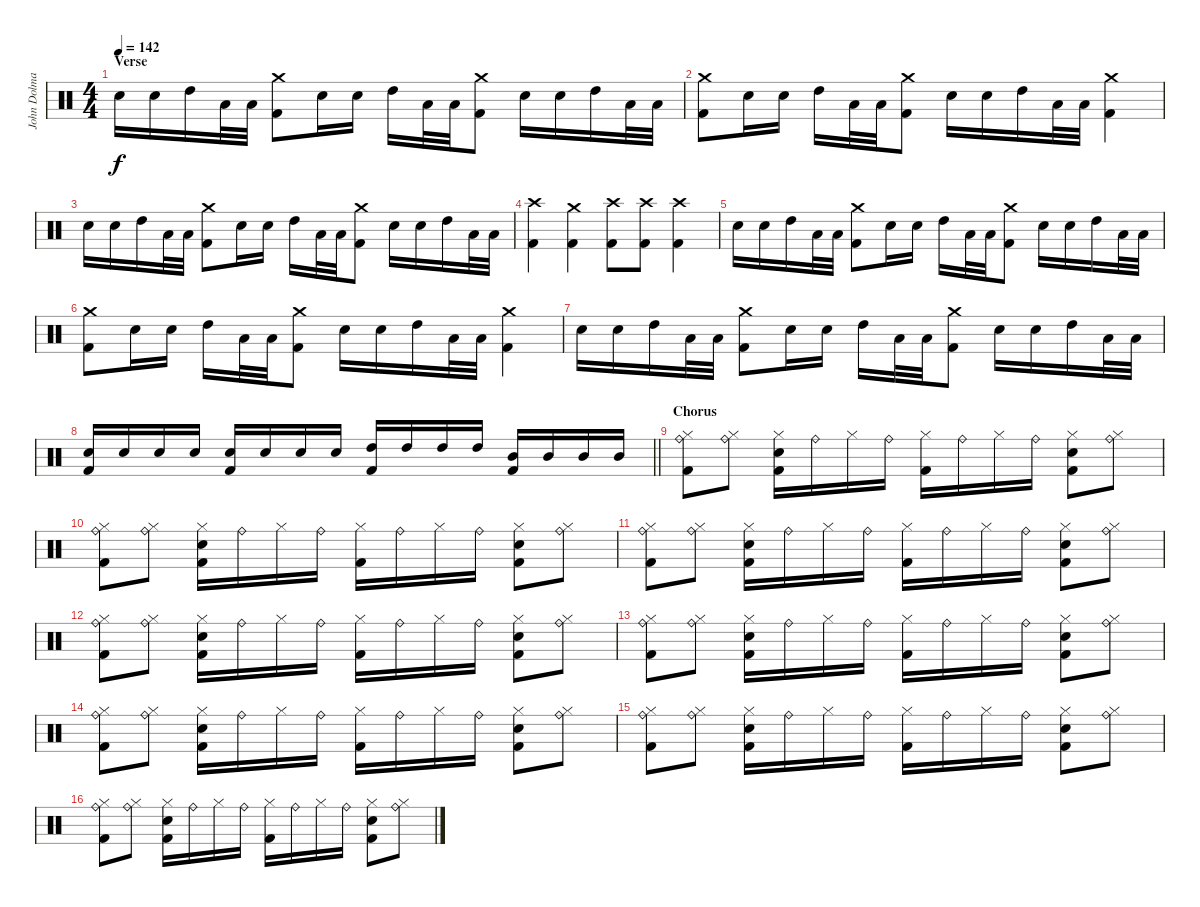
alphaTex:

\track ("John Dolmayan" "John Dolma") {instrument percussion}
\staff {score}
\articulation defaults
\ts (4 4)
\section ("" "Verse")
\tempo 142
\clef neutral
\ks c "Electric Snare (hit)".16{dy f} "Electric Snare (hit)".16 "High Tom (hit)".16 "Low Floor Tom (hit)".32 "Low Floor Tom (hit)".32
("Crash medium (hit)" "Kick (hit) 2").8 "Electric Snare (hit)".16 "Electric Snare (hit)".16 "High Tom (hit)".16 "Low Floor Tom (hit)".32 "Low Floor Tom (hit)".32 ("Crash medium (hit)" "Kick (hit) 2").8 "Electric Snare (hit)".16 "Electric Snare (hit)".16 "High Tom (hit)".16 "Low Floor Tom (hit)".32 "Low Floor Tom (hit)".32 |
("Crash medium (hit)" "Kick (hit) 2").8 "Electric Snare (hit)".16 "Electric Snare (hit)".16 "High Tom (hit)".16 "Low Floor Tom (hit)".32 "Low Floor Tom (hit)".32 ("Crash medium (hit)" "Kick (hit) 2").8 "Electric Snare (hit)".16 "Electric Snare (hit)".16 "High Tom (hit)".16 "Low Floor Tom (hit)".32 "Low Floor Tom (hit)".32 ("Crash medium (hit)" "Kick (hit) 2").4 |
"Electric Snare (hit)".16 "Electric Snare (hit)".16 "High Tom (hit)".16 "Low Floor Tom (hit)".32 "Low Floor Tom (hit)".32 ("Crash medium (hit)" "Kick (hit) 2").8 "Electric Snare (hit)".16 "Electric Snare (hit)".16 "High Tom (hit)".16 "Low Floor Tom (hit)".32 "Low Floor Tom (hit)".32 ("Crash medium (hit)" "Kick (hit) 2").8 "Electric Snare (hit)".16 "Electric Snare (hit)".16 "High Tom (hit)".16 "Low Floor Tom (hit)".32 "Low Floor Tom (hit)".32 |
("Crash high (hit)" "Kick (hit) 2").4 ("Crash medium (hit)" "Kick (hit) 2").4 ("Crash high (hit)" "Kick (hit) 2").8 ("Crash high (hit)" "Kick (hit) 2").8 ("Crash high (hit)" "Kick (hit) 2").4 |
"Electric Snare (hit)".16 "Electric Snare (hit)".16 "High Tom (hit)".16 "Low Floor Tom (hit)".32 "Low Floor Tom (hit)".32 ("Crash medium (hit)" "Kick (hit) 2").8 "Electric Snare (hit)".16 "Electric Snare (hit)".16 "High Tom (hit)".16 "Low Floor Tom (hit)".32 "Low Floor Tom (hit)".32 ("Crash medium (hit)" "Kick (hit) 2").8 "Electric Snare (hit)".16 "Electric Snare (hit)".16 "High Tom (hit)".16 "Low Floor Tom (hit)".32 "Low Floor Tom (hit)".32 |
("Crash medium (hit)" "Kick (hit) 2").8 "Electric Snare (hit)".16 "Electric Snare (hit)".16 "High Tom (hit)".16 "Low Floor Tom (hit)".32 "Low Floor Tom (hit)".32 ("Crash medium (hit)" "Kick (hit) 2").8 "Electric Snare (hit)".16 "Electric Snare (hit)".16 "High Tom (hit)".16 "Low Floor Tom (hit)".32 "Low Floor Tom (hit)".32 ("Crash medium (hit)" "Kick (hit) 2").4 |
"Electric Snare (hit)".16 "Electric Snare (hit)".16 "High Tom (hit)".16 "Low Floor Tom (hit)".32 "Low Floor Tom (hit)".32 ("Crash medium (hit)" "Kick (hit) 2").8 "Electric Snare (hit)".16 "Electric Snare (hit)".16 "High Tom (hit)".16 "Low Floor Tom (hit)".32 "Low Floor Tom (hit)".32 ("Crash medium (hit)" "Kick (hit) 2").8 "Electric Snare (hit)".16 "Electric Snare (hit)".16 "High Tom (hit)".16 "Low Floor Tom (hit)".32 "Low Floor Tom (hit)".32 |
\barLineRight lightlight
("Electric Snare (hit)" "Kick (hit) 2").16 "Electric Snare (hit)".16 "Electric Snare (hit)".16 "Electric Snare (hit)".16 ("Electric Snare (hit)" "Kick (hit) 2").16 "Electric Snare (hit)".16 "Electric Snare (hit)".16 "Electric Snare (hit)".16 ("High Tom (hit)" "Kick (hit) 2").16 "High Tom (hit)".16 "High Tom (hit)".16 "High Tom (hit)".16 ("Mid Tom (hit)" "Kick (hit) 2").16 "Mid Tom (hit)".16 "Mid Tom (hit)".16 "Mid Tom (hit)".16 |
\section ("" "Chorus")
("Ride (bell)" "Hi-Hat (closed)" "Kick (hit) 2").8 ("Ride (bell)" "Hi-Hat (closed)").8 ("Hi-Hat (closed)" "Electric Snare (hit)" "Kick (hit) 2").16 "Ride (bell)".16 "Hi-Hat (closed)".16 "Ride (bell)".16 ("Hi-Hat (closed)" "Kick (hit) 2").16 "Ride (bell)".16 "Hi-Hat (closed)".16 "Ride (bell)".16 ("Hi-Hat (closed)" "Electric Snare (hit)" "Kick (hit) 2").8 ("Ride (bell)" "Hi-Hat (closed)").8 |
("Ride (bell)" "Hi-Hat (closed)" "Kick (hit) 2").8 ("Ride (bell)" "Hi-Hat (closed)").8 ("Hi-Hat (closed)" "Electric Snare (hit)" "Kick (hit) 2").16 "Ride (bell)".16 "Hi-Hat (closed)".16 "Ride (bell)".16 ("Hi-Hat (closed)" "Kick (hit) 2").16 "Ride (bell)".16 "Hi-Hat (closed)".16 "Ride (bell)".16 ("Hi-Hat (closed)" "Electric Snare (hit)" "Kick (hit) 2").8 ("Ride (bell)" "Hi-Hat (closed)").8 |
("Ride (bell)" "Hi-Hat (closed)" "Kick (hit) 2").8 ("Ride (bell)" "Hi-Hat (closed)").8 ("Hi-Hat (closed)" "Electric Snare (hit)" "Kick (hit) 2").16 "Ride (bell)".16 "Hi-Hat (closed)".16 "Ride (bell)".16 ("Hi-Hat (closed)" "Kick (hit) 2").16 "Ride (bell)".16 "Hi-Hat (closed)".16 "Ride (bell)".16 ("Hi-Hat (closed)" "Electric Snare (hit)" "Kick (hit) 2").8 ("Ride (bell)" "Hi-Hat (closed)").8 |
("Ride (bell)" "Hi-Hat (closed)" "Kick (hit) 2").8 ("Ride (bell)" "Hi-Hat (closed)").8 ("Hi-Hat (closed)" "Electric Snare (hit)" "Kick (hit) 2").16 "Ride (bell)".16 "Hi-Hat (closed)".16 "Ride (bell)".16 ("Hi-Hat (closed)" "Kick (hit) 2").16 "Ride (bell)".16 "Hi-Hat (closed)".16 "Ride (bell)".16 ("Hi-Hat (closed)" "Electric Snare (hit)" "Kick (hit) 2").8 ("Ride (bell)" "Hi-Hat (closed)").8 |
("Ride (bell)" "Hi-Hat (closed)" "Kick (hit) 2").8 ("Ride (bell)" "Hi-Hat (closed)").8 ("Hi-Hat (closed)" "Electric Snare (hit)" "Kick (hit) 2").16 "Ride (bell)".16 "Hi-Hat (closed)".16 "Ride (bell)".16 ("Hi-Hat (closed)" "Kick (hit) 2").16 "Ride (bell)".16 "Hi-Hat (closed)".16 "Ride (bell)".16 ("Hi-Hat (closed)" "Electric Snare (hit)" "Kick (hit) 2").8 ("Ride (bell)" "Hi-Hat (closed)").8 |
("Ride (bell)" "Hi-Hat (closed)" "Kick (hit) 2").8 ("Ride (bell)" "Hi-Hat (closed)").8 ("Hi-Hat (closed)" "Electric Snare (hit)" "Kick (hit) 2").16 "Ride (bell)".16 "Hi-Hat (closed)".16 "Ride (bell)".16 ("Hi-Hat (closed)" "Kick (hit) 2").16 "Ride (bell)".16 "Hi-Hat (closed)".16 "Ride (bell)".16 ("Hi-Hat (closed)" "Electric Snare (hit)" "Kick (hit) 2").8 ("Ride (bell)" "Hi-Hat (closed)").8 |
("Ride (bell)" "Hi-Hat (closed)" "Kick (hit) 2").8 ("Ride (bell)" "Hi-Hat (closed)").8 ("Hi-Hat (closed)" "Electric Snare (hit)" "Kick (hit) 2").16 "Ride (bell)".16 "Hi-Hat (closed)".16 "Ride (bell)".16 ("Hi-Hat (closed)" "Kick (hit) 2").16 "Ride (bell)".16 "Hi-Hat (closed)".16 "Ride (bell)".16 ("Hi-Hat (closed)" "Electric Snare (hit)" "Kick (hit) 2").8 ("Ride (bell)" "Hi-Hat (closed)").8 |
("Ride (bell)" "Hi-Hat (closed)" "Kick (hit) 2").8 ("Ride (bell)" "Hi-Hat (closed)").8 ("Hi-Hat (closed)" "Electric Snare (hit)" "Kick (hit) 2").16 "Ride (bell)".16 "Hi-Hat (closed)".16 "Ride (bell)".16 ("Hi-Hat (closed)" "Kick (hit) 2").16 "Ride (bell)".16 "Hi-Hat (closed)".16 "Ride (bell)".16 ("Hi-Hat (closed)" "Electric Snare (hit)" "Kick (hit) 2").8 ("Ride (bell)" "Hi-Hat (closed)").8
